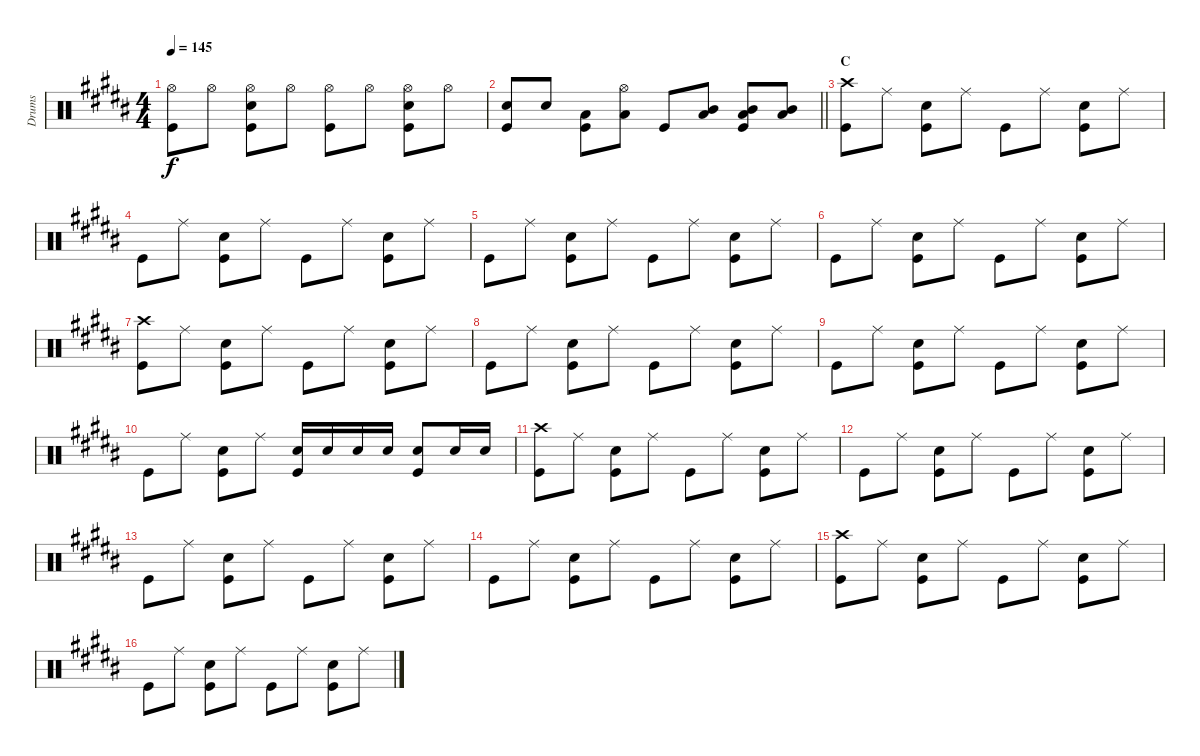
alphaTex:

\track ("Drums" "Drums") {instrument percussion}
\staff {score}
\articulation defaults
\ts (4 4)
\tempo 145
\clef neutral
\ks b
("Hi-Hat (open)" "Kick (hit)").8{dy f} "Hi-Hat (open)".8 ("Hi-Hat (open)" "Snare (hit) 2" "Kick (hit)").8 "Hi-Hat (open)".8 ("Hi-Hat (open)" "Kick (hit)").8 "Hi-Hat (open)".8 ("Hi-Hat (open)" "Snare (hit) 2" "Kick (hit)").8 "Hi-Hat (open)".8 |
\barLineRight lightlight
("Snare (hit) 2" "Kick (hit)").8 "Snare (hit) 2".8 ("Low Tom (hit)" "Kick (hit)").8 ("Hi-Hat (open)" "Low Tom (hit)").8 "Kick (hit)".8 ("Mid Tom (hit)" "Low Tom (hit)").8 ("Mid Tom (hit)" "Low Tom (hit)" "Kick (hit)").8 ("Mid Tom (hit)" "Low Tom (hit)").8 |
\section ("" "C")
("Crash high (hit)" "Kick (hit)").8 "Ride (middle)".8 ("Snare (hit) 2" "Kick (hit)").8 "Ride (middle)".8 "Kick (hit)".8 "Ride (middle)".8 ("Snare (hit) 2" "Kick (hit)").8 "Ride (middle)".8 |
"Kick (hit)".8 "Ride (middle)".8 ("Snare (hit) 2" "Kick (hit)").8 "Ride (middle)".8 "Kick (hit)".8 "Ride (middle)".8 ("Snare (hit) 2" "Kick (hit)").8 "Ride (middle)".8 |
"Kick (hit)".8 "Ride (middle)".8 ("Snare (hit) 2" "Kick (hit)").8 "Ride (middle)".8 "Kick (hit)".8 "Ride (middle)".8 ("Snare (hit) 2" "Kick (hit)").8 "Ride (middle)".8 |
"Kick (hit)".8 "Ride (middle)".8 ("Snare (hit) 2" "Kick (hit)").8 "Ride (middle)".8 "Kick (hit)".8 "Ride (middle)".8 ("Snare (hit) 2" "Kick (hit)").8 "Ride (middle)".8 |
("Crash high (hit)" "Kick (hit)").8 "Ride (middle)".8 ("Snare (hit) 2" "Kick (hit)").8 "Ride (middle)".8 "Kick (hit)".8 "Ride (middle)".8 ("Snare (hit) 2" "Kick (hit)").8 "Ride (middle)".8 |
"Kick (hit)".8 "Ride (middle)".8 ("Snare (hit) 2" "Kick (hit)").8 "Ride (middle)".8 "Kick (hit)".8 "Ride (middle)".8 ("Snare (hit) 2" "Kick (hit)").8 "Ride (middle)".8 |
"Kick (hit)".8 "Ride (middle)".8 ("Snare (hit) 2" "Kick (hit)").8 "Ride (middle)".8 "Kick (hit)".8 "Ride (middle)".8 ("Snare (hit) 2" "Kick (hit)").8 "Ride (middle)".8 |
"Kick (hit)".8 "Ride (middle)".8 ("Snare (hit) 2" "Kick (hit)").8 "Ride (middle)".8 ("Snare (hit) 2" "Kick (hit)").16 "Snare (hit) 2".16 "Snare (hit) 2".16 "Snare (hit) 2".16 ("Snare (hit) 2" "Kick (hit)").8 "Snare (hit) 2".16 "Snare (hit) 2".16 |
("Crash high (hit)" "Kick (hit)").8 "Ride (middle)".8 ("Snare (hit) 2" "Kick (hit)").8 "Ride (middle)".8 "Kick (hit)".8 "Ride (middle)".8 ("Snare (hit) 2" "Kick (hit)").8 "Ride (middle)".8 |
"Kick (hit)".8 "Ride (middle)".8 ("Snare (hit) 2" "Kick (hit)").8 "Ride (middle)".8 "Kick (hit)".8 "Ride (middle)".8 ("Snare (hit) 2" "Kick (hit)").8 "Ride (middle)".8 |
"Kick (hit)".8 "Ride (middle)".8 ("Snare (hit) 2" "Kick (hit)").8 "Ride (middle)".8 "Kick (hit)".8 "Ride (middle)".8 ("Snare (hit) 2" "Kick (hit)").8 "Ride (middle)".8 |
"Kick (hit)".8 "Ride (middle)".8 ("Snare (hit) 2" "Kick (hit)").8 "Ride (middle)".8 "Kick (hit)".8 "Ride (middle)".8 ("Snare (hit) 2" "Kick (hit)").8 "Ride (middle)".8 |
("Crash high (hit)" "Kick (hit)").8 "Ride (middle)".8 ("Snare (hit) 2" "Kick (hit)").8 "Ride (middle)".8 "Kick (hit)".8 "Ride (middle)".8 ("Snare (hit) 2" "Kick (hit)").8 "Ride (middle)".8 |
"Kick (hit)".8 "Ride (middle)".8 ("Snare (hit) 2" "Kick (hit)").8 "Ride (middle)".8 "Kick (hit)".8 "Ride (middle)".8 ("Snare (hit) 2" "Kick (hit)").8 "Ride (middle)".8
